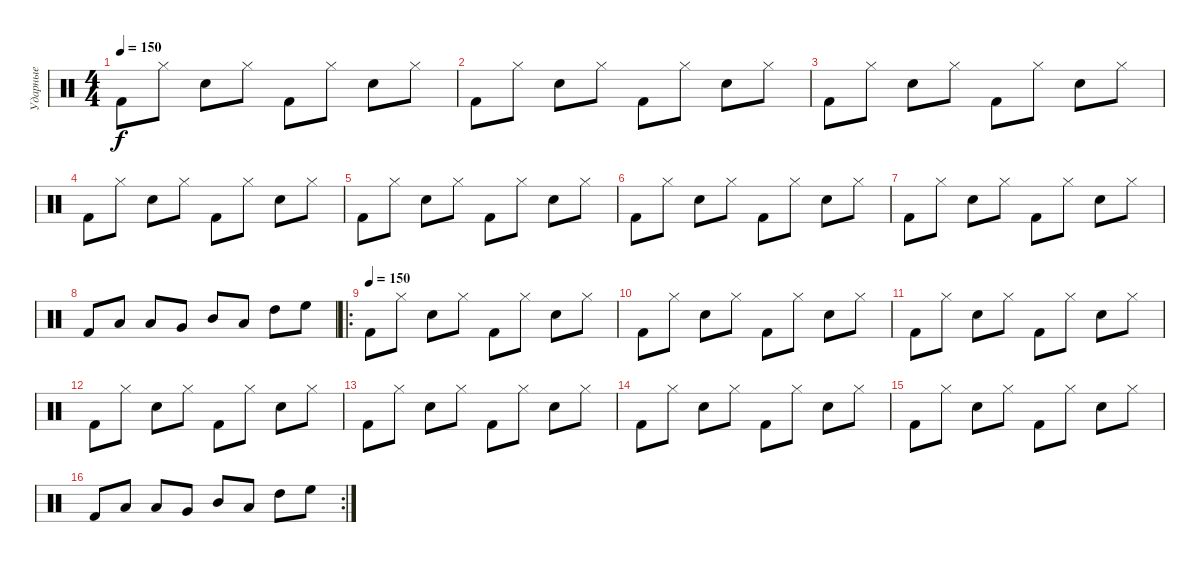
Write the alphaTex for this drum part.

\track ("Ударные" "Ударные") {instrument percussion}
\staff {score}
\articulation defaults
\ts (4 4)
\tempo 150
\clef neutral
\ks c "Kick (hit) 2".8{dy f} "Hi-Hat (closed)".8 "Electric Snare (hit)".8 "Hi-Hat (closed)".8 "Kick (hit) 2".8 "Hi-Hat (closed)".8 "Electric Snare (hit)".8 "Hi-Hat (closed)".8
|
"Kick (hit) 2".8 "Hi-Hat (closed)".8 "Electric Snare (hit)".8 "Hi-Hat (closed)".8 "Kick (hit) 2".8 "Hi-Hat (closed)".8 "Electric Snare (hit)".8 "Hi-Hat (closed)".8 |
"Kick (hit) 2".8 "Hi-Hat (closed)".8 "Electric Snare (hit)".8 "Hi-Hat (closed)".8 "Kick (hit) 2".8 "Hi-Hat (closed)".8 "Electric Snare (hit)".8 "Hi-Hat (closed)".8 |
"Kick (hit) 2".8 "Hi-Hat (closed)".8 "Electric Snare (hit)".8 "Hi-Hat (closed)".8 "Kick (hit) 2".8 "Hi-Hat (closed)".8 "Electric Snare (hit)".8 "Hi-Hat (closed)".8 |
"Kick (hit) 2".8 "Hi-Hat (closed)".8 "Electric Snare (hit)".8 "Hi-Hat (closed)".8 "Kick (hit) 2".8 "Hi-Hat (closed)".8 "Electric Snare (hit)".8 "Hi-Hat (closed)".8 |
"Kick (hit) 2".8 "Hi-Hat (closed)".8 "Electric Snare (hit)".8 "Hi-Hat (closed)".8 "Kick (hit) 2".8 "Hi-Hat (closed)".8 "Electric Snare (hit)".8 "Hi-Hat (closed)".8 |
"Kick (hit) 2".8 "Hi-Hat (closed)".8 "Electric Snare (hit)".8 "Hi-Hat (closed)".8 "Kick (hit) 2".8 "Hi-Hat (closed)".8 "Electric Snare (hit)".8 "Hi-Hat (closed)".8 |
"Kick (hit) 2".8 "Low Floor Tom (hit)".8 "Low Tom (hit)".8 "Very Low Tom (hit)".8 "Mid Tom (hit)".8 "Low Tom (hit)".8 "High Tom (hit)".8 "High Floor Tom (hit)".8 |
\ro
\tempo (150)
"Kick (hit) 2".8 "Hi-Hat (closed)".8 "Electric Snare (hit)".8 "Hi-Hat (closed)".8 "Kick (hit) 2".8 "Hi-Hat (closed)".8 "Electric Snare (hit)".8 "Hi-Hat (closed)".8 |
"Kick (hit) 2".8 "Hi-Hat (closed)".8 "Electric Snare (hit)".8 "Hi-Hat (closed)".8 "Kick (hit) 2".8 "Hi-Hat (closed)".8 "Electric Snare (hit)".8 "Hi-Hat (closed)".8 |
"Kick (hit) 2".8 "Hi-Hat (closed)".8 "Electric Snare (hit)".8 "Hi-Hat (closed)".8 "Kick (hit) 2".8 "Hi-Hat (closed)".8 "Electric Snare (hit)".8 "Hi-Hat (closed)".8 |
"Kick (hit) 2".8 "Hi-Hat (closed)".8 "Electric Snare (hit)".8 "Hi-Hat (closed)".8 "Kick (hit) 2".8 "Hi-Hat (closed)".8 "Electric Snare (hit)".8 "Hi-Hat (closed)".8 |
"Kick (hit) 2".8 "Hi-Hat (closed)".8 "Electric Snare (hit)".8 "Hi-Hat (closed)".8 "Kick (hit) 2".8 "Hi-Hat (closed)".8 "Electric Snare (hit)".8 "Hi-Hat (closed)".8 |
"Kick (hit) 2".8 "Hi-Hat (closed)".8 "Electric Snare (hit)".8 "Hi-Hat (closed)".8 "Kick (hit) 2".8 "Hi-Hat (closed)".8 "Electric Snare (hit)".8 "Hi-Hat (closed)".8 |
"Kick (hit) 2".8 "Hi-Hat (closed)".8 "Electric Snare (hit)".8 "Hi-Hat (closed)".8 "Kick (hit) 2".8 "Hi-Hat (closed)".8 "Electric Snare (hit)".8 "Hi-Hat (closed)".8 |
\rc 2 "Kick (hit) 2".8 "Low Floor Tom (hit)".8 "Low Tom (hit)".8 "Very Low Tom (hit)".8 "Mid Tom (hit)".8 "Low Tom (hit)".8 "High Tom (hit)".8 "High Floor Tom (hit)".8
